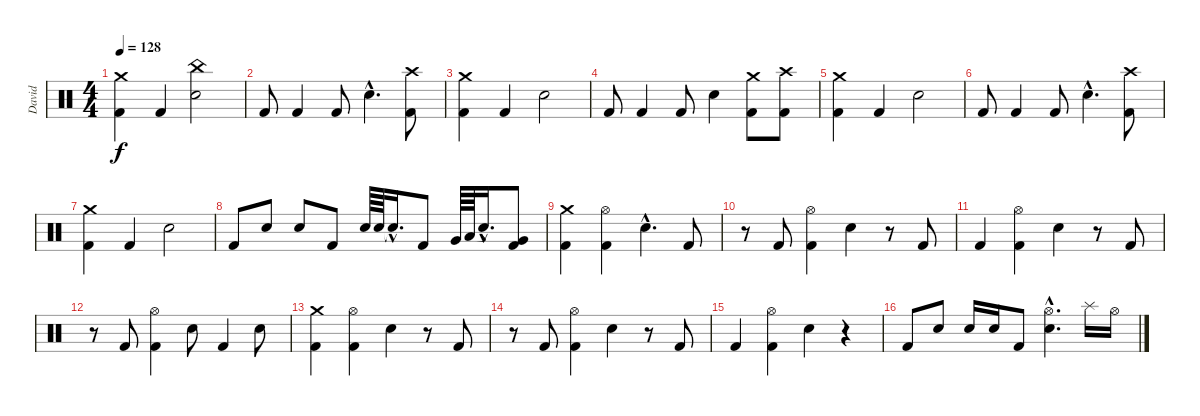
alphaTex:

\track ("David" "David") {instrument percussion}
\staff {score}
\articulation defaults
\ts (4 4)
\tempo 128
\clef neutral
\ks c
("Crash medium (hit)" "Kick (hit) 2").4{dy f} "Kick (hit) 2".4 ("China (hit)" "Snare (hit) 2").2 |
"Kick (hit) 2".8 "Kick (hit) 2".4 "Kick (hit) 2".8 "Snare (hit) 2"{hac}.4{d} ("Crash high (hit)" "Kick (hit) 2").8 |
("Crash medium (hit)" "Kick (hit) 2").4 "Kick (hit) 2".4 "Snare (hit) 2".2 |
"Kick (hit) 2".8 "Kick (hit) 2".4 "Kick (hit) 2".8 "Snare (hit) 2".4 ("Crash medium (hit)" "Kick (hit) 2").8 ("Crash high (hit)" "Kick (hit) 2").8 |
("Crash medium (hit)" "Kick (hit) 2").4 "Kick (hit) 2".4 "Snare (hit) 2".2 |
"Kick (hit) 2".8 "Kick (hit) 2".4 "Kick (hit) 2".8 "Snare (hit) 2"{hac}.4{d} ("Crash high (hit)" "Kick (hit) 2").8 |
("Crash medium (hit)" "Kick (hit) 2").4 "Kick (hit) 2".4 "Snare (hit) 2".2 |
"Kick (hit) 2".8 "Snare (hit) 2".8 "Snare (hit) 2".8 "Kick (hit) 2".8 "Snare (hit) 2".64 "Snare (hit) 2".64 "Snare (hit)"{hac t}.16{d} "Kick (hit) 2".8 "Very Low Tom (hit)".64 "Low Tom (hit)".64 "Snare (hit)"{hac t}.16{d} ("Very Low Tom (hit)" "Kick (hit) 2").8 |
("Crash medium (hit)" "Kick (hit) 2").4 ("Hi-Hat (open)" "Kick (hit) 2").4 "Snare (hit) 2"{hac}.4{d} "Kick (hit) 2".8 |
r.8 "Kick (hit) 2".8 ("Hi-Hat (open)" "Kick (hit) 2").4 "Snare (hit) 2".4 r.8 "Kick (hit) 2".8 |
"Kick (hit) 2".4 ("Hi-Hat (open)" "Kick (hit) 2").4 "Snare (hit) 2".4 r.8 "Kick (hit) 2".8 |
r.8 "Kick (hit) 2".8 ("Hi-Hat (open)" "Kick (hit) 2").4 "Snare (hit) 2".8 "Kick (hit) 2".4 "Snare (hit) 2".8 |
("Crash medium (hit)" "Kick (hit) 2").4 ("Hi-Hat (open)" "Kick (hit) 2").4 "Snare (hit) 2".4 r.8 "Kick (hit) 2".8 |
r.8 "Kick (hit) 2".8 ("Hi-Hat (open)" "Kick (hit) 2").4 "Snare (hit) 2".4 r.8 "Kick (hit) 2".8 |
"Kick (hit) 2".4 ("Hi-Hat (open)" "Kick (hit) 2").4 "Snare (hit) 2".4 r.4 |
"Kick (hit) 2".8 "Snare (hit) 2".8 "Snare (hit) 2".16 "Snare (hit) 2".16 "Kick (hit) 2".8 ("Hi-Hat (open)"{hac} "Snare (hit) 2"{hac}).4{d} "Splash (hit)".16 "Hi-Hat (open)".16
